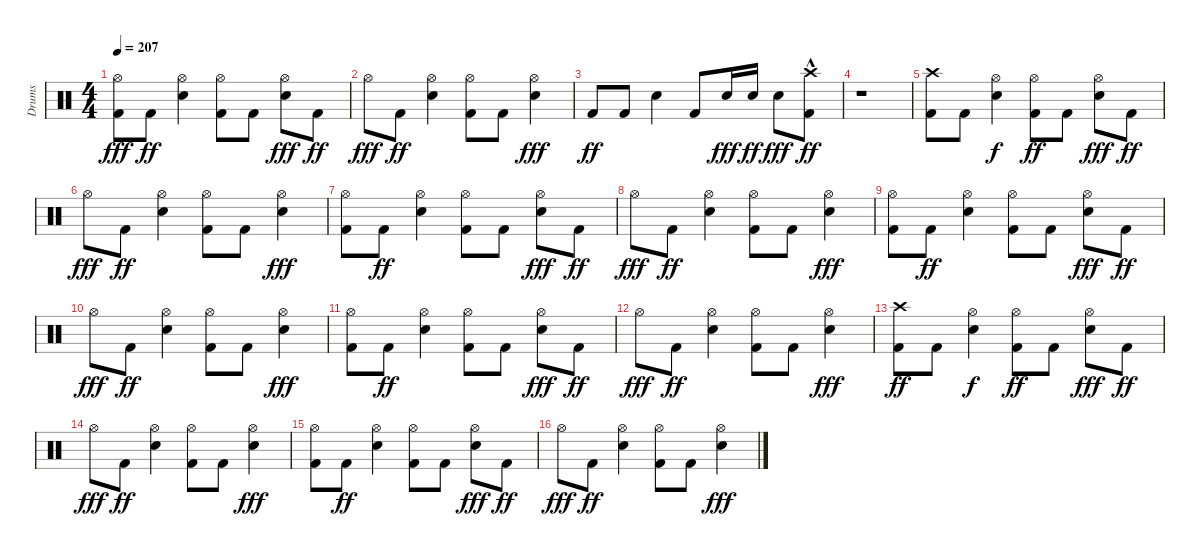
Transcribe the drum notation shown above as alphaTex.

\track ("Drums" "Drums") {instrument percussion}
\staff {score}
\articulation defaults
\ts (4 4)
\tempo 207
\clef neutral
\ks c
("Kick (hit) 2" "Hi-Hat (open)").8{dy fff} "Kick (hit) 2".8{dy ff} ("Snare (hit) 2" "Hi-Hat (open)").4 ("Kick (hit) 2" "Hi-Hat (open)").8 "Kick (hit) 2".8 ("Snare (hit) 2" "Hi-Hat (open)").8{dy fff} "Kick (hit) 2".8{dy ff} |
"Hi-Hat (open)".8{dy fff} "Kick (hit) 2".8{dy ff} ("Snare (hit) 2" "Hi-Hat (open)").4 ("Kick (hit) 2" "Hi-Hat (open)").8 "Kick (hit) 2".8 ("Snare (hit) 2" "Hi-Hat (open)").4{dy fff} |
"Kick (hit) 2".8{dy ff} "Kick (hit) 2".8 "Snare (hit) 2".4 "Kick (hit) 2".8 "Snare (hit) 2".16{dy fff} "Snare (hit) 2".16{dy ff} "Snare (hit) 2".8{dy fff} ("Crash high (hit)"{hac} "Kick (hit) 2").8{dy ff} |
r.1 |
("Crash high (hit)" "Kick (hit) 2").8 "Kick (hit) 2".8 ("Hi-Hat (open)" "Snare (hit) 2").4{dy f} ("Kick (hit) 2" "Hi-Hat (open)").8{dy ff} "Kick (hit) 2".8 ("Snare (hit) 2" "Hi-Hat (open)").8{dy fff} "Kick (hit) 2".8{dy ff} |
"Hi-Hat (open)".8{dy fff} "Kick (hit) 2".8{dy ff} ("Snare (hit) 2" "Hi-Hat (open)").4 ("Kick (hit) 2" "Hi-Hat (open)").8 "Kick (hit) 2".8 ("Snare (hit) 2" "Hi-Hat (open)").4{dy fff} |
("Kick (hit) 2" "Hi-Hat (open)").8 "Kick (hit) 2".8{dy ff} ("Snare (hit) 2" "Hi-Hat (open)").4 ("Kick (hit) 2" "Hi-Hat (open)").8 "Kick (hit) 2".8 ("Snare (hit) 2" "Hi-Hat (open)").8{dy fff} "Kick (hit) 2".8{dy ff} |
"Hi-Hat (open)".8{dy fff} "Kick (hit) 2".8{dy ff} ("Snare (hit) 2" "Hi-Hat (open)").4 ("Kick (hit) 2" "Hi-Hat (open)").8 "Kick (hit) 2".8 ("Snare (hit) 2" "Hi-Hat (open)").4{dy fff} |
("Kick (hit) 2" "Hi-Hat (open)").8 "Kick (hit) 2".8{dy ff} ("Snare (hit) 2" "Hi-Hat (open)").4 ("Kick (hit) 2" "Hi-Hat (open)").8 "Kick (hit) 2".8 ("Snare (hit) 2" "Hi-Hat (open)").8{dy fff} "Kick (hit) 2".8{dy ff} |
"Hi-Hat (open)".8{dy fff} "Kick (hit) 2".8{dy ff} ("Snare (hit) 2" "Hi-Hat (open)").4 ("Kick (hit) 2" "Hi-Hat (open)").8 "Kick (hit) 2".8 ("Snare (hit) 2" "Hi-Hat (open)").4{dy fff} |
("Kick (hit) 2" "Hi-Hat (open)").8 "Kick (hit) 2".8{dy ff} ("Snare (hit) 2" "Hi-Hat (open)").4 ("Kick (hit) 2" "Hi-Hat (open)").8 "Kick (hit) 2".8 ("Snare (hit) 2" "Hi-Hat (open)").8{dy fff} "Kick (hit) 2".8{dy ff} |
"Hi-Hat (open)".8{dy fff} "Kick (hit) 2".8{dy ff} ("Snare (hit) 2" "Hi-Hat (open)").4 ("Kick (hit) 2" "Hi-Hat (open)").8 "Kick (hit) 2".8 ("Snare (hit) 2" "Hi-Hat (open)").4{dy fff} |
("Crash high (hit)" "Kick (hit) 2").8{dy ff} "Kick (hit) 2".8 ("Snare (hit) 2" "Hi-Hat (open)").4{dy f} ("Kick (hit) 2" "Hi-Hat (open)").8{dy ff} "Kick (hit) 2".8 ("Hi-Hat (open)" "Snare (hit) 2").8{dy fff} "Kick (hit) 2".8{dy ff} |
"Hi-Hat (open)".8{dy fff} "Kick (hit) 2".8{dy ff} ("Snare (hit) 2" "Hi-Hat (open)").4 ("Kick (hit) 2" "Hi-Hat (open)").8 "Kick (hit) 2".8 ("Snare (hit) 2" "Hi-Hat (open)").4{dy fff} |
("Kick (hit) 2" "Hi-Hat (open)").8 "Kick (hit) 2".8{dy ff} ("Snare (hit) 2" "Hi-Hat (open)").4 ("Kick (hit) 2" "Hi-Hat (open)").8 "Kick (hit) 2".8 ("Snare (hit) 2" "Hi-Hat (open)").8{dy fff} "Kick (hit) 2".8{dy ff} |
"Hi-Hat (open)".8{dy fff} "Kick (hit) 2".8{dy ff} ("Snare (hit) 2" "Hi-Hat (open)").4 ("Kick (hit) 2" "Hi-Hat (open)").8 "Kick (hit) 2".8 ("Snare (hit) 2" "Hi-Hat (open)").4{dy fff}
